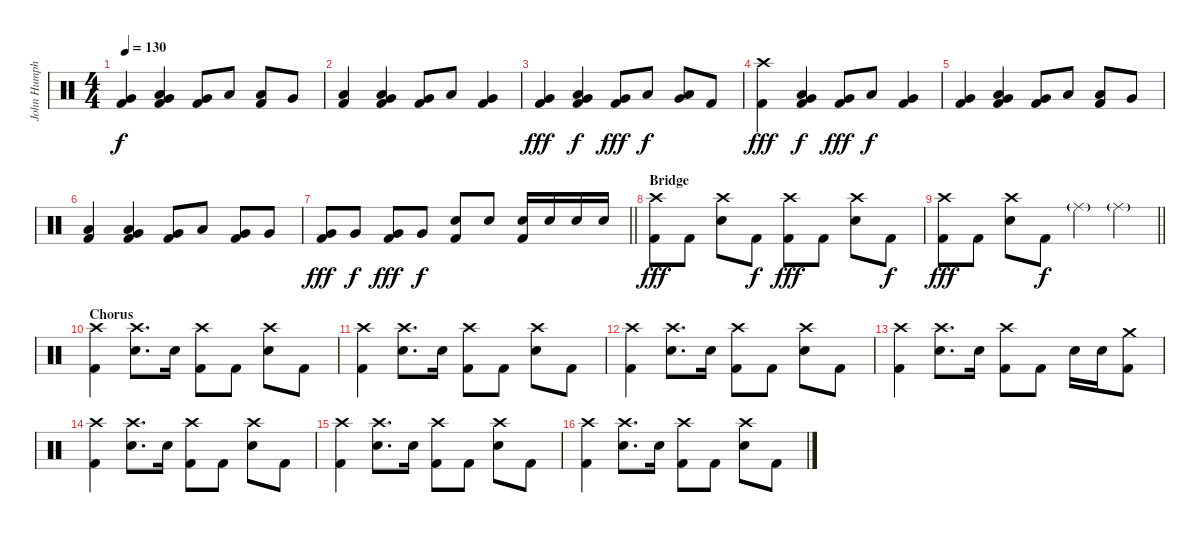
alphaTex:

\track ("John Humphrey" "John Humph") {instrument percussion}
\staff {score}
\articulation defaults
\ts (4 4)
\tempo 130
\clef neutral
\ks c
("Very Low Tom (hit)" "Kick (hit) 2").4{dy f} ("Low Tom (hit)" "Very Low Tom (hit)" "Kick (hit) 2").4 ("Very Low Tom (hit)" "Kick (hit) 2").8 "Low Tom (hit)".8 ("Low Floor Tom (hit)" "Kick (hit) 2").8 "Very Low Tom (hit)".8 |
("Low Floor Tom (hit)" "Kick (hit) 2").4 ("Low Tom (hit)" "Very Low Tom (hit)" "Kick (hit) 2").4 ("Very Low Tom (hit)" "Kick (hit) 2").8 "Low Tom (hit)".8 ("Very Low Tom (hit)" "Kick (hit) 2").4 |
("Very Low Tom (hit)" "Kick (hit) 2").4{dy fff} ("Low Tom (hit)" "Very Low Tom (hit)" "Kick (hit) 2").4{dy f} ("Very Low Tom (hit)" "Kick (hit) 2").8{dy fff} "Low Tom (hit)".8{dy f} ("Low Tom (hit)" "Very Low Tom (hit)").8{bd 120} "Kick (hit) 2".8 |
("Crash high (hit)" "Kick (hit) 2").4{dy fff} ("Low Tom (hit)" "Very Low Tom (hit)" "Kick (hit) 2").4{dy f} ("Very Low Tom (hit)" "Kick (hit) 2").8{dy fff} "Low Tom (hit)".8{dy f} ("Very Low Tom (hit)" "Kick (hit) 2").4 |
("Very Low Tom (hit)" "Kick (hit) 2").4 ("Low Tom (hit)" "Very Low Tom (hit)" "Kick (hit) 2").4 ("Very Low Tom (hit)" "Kick (hit) 2").8 "Low Tom (hit)".8 ("Low Floor Tom (hit)" "Kick (hit) 2").8 "Very Low Tom (hit)".8 |
("Low Floor Tom (hit)" "Kick (hit) 2").4 ("Low Tom (hit)" "Very Low Tom (hit)" "Kick (hit) 2").4 ("Very Low Tom (hit)" "Kick (hit) 2").8 "Low Tom (hit)".8 ("Very Low Tom (hit)" "Kick (hit) 2").8 "Very Low Tom (hit)".8 |
\barLineRight lightlight
("Very Low Tom (hit)" "Kick (hit) 2").8{dy fff} "Very Low Tom (hit)".8{dy f} ("Very Low Tom (hit)" "Kick (hit) 2").8{dy fff} "Very Low Tom (hit)".8{dy f} ("Electric Snare (hit)" "Kick (hit) 2").8 "Electric Snare (hit)".8 ("Electric Snare (hit)" "Kick (hit) 2").16 "Electric Snare (hit)".16 "Electric Snare (hit)".16 "Electric Snare (hit)".16 |
\section ("" "Bridge")
("Crash high (hit)" "Kick (hit) 2").8{dy fff} "Kick (hit) 2".8 ("Crash high (hit)" "Electric Snare (hit)").8 "Kick (hit) 2".8{dy f} ("Crash high (hit)" "Kick (hit) 2").8{dy fff} "Kick (hit) 2".8 ("Crash high (hit)" "Electric Snare (hit)").8 "Kick (hit) 2".8{dy f} |
\barLineRight lightlight
("Crash high (hit)" "Kick (hit) 2").8{dy fff} "Kick (hit) 2".8 ("Crash high (hit)" "Electric Snare (hit)").8 "Kick (hit) 2".8{dy f} "Ride (middle)"{g}.4 "Ride (middle)"{g}.4 |
\section ("" "Chorus")
("Crash high (hit)" "Kick (hit) 2").4 ("Crash high (hit)" "Electric Snare (hit)").8{d} "Electric Snare (hit)".16 ("Crash high (hit)" "Kick (hit) 2").8 "Kick (hit) 2".8 ("Crash high (hit)" "Electric Snare (hit)").8 "Kick (hit) 2".8 |
("Crash high (hit)" "Kick (hit) 2").4 ("Crash high (hit)" "Electric Snare (hit)").8{d} "Electric Snare (hit)".16 ("Crash high (hit)" "Kick (hit) 2").8 "Kick (hit) 2".8 ("Crash high (hit)" "Electric Snare (hit)").8 "Kick (hit) 2".8 |
("Crash high (hit)" "Kick (hit) 2").4 ("Crash high (hit)" "Electric Snare (hit)").8{d} "Electric Snare (hit)".16 ("Crash high (hit)" "Kick (hit) 2").8 "Kick (hit) 2".8 ("Crash high (hit)" "Electric Snare (hit)").8 "Kick (hit) 2".8 |
("Crash high (hit)" "Kick (hit) 2").4 ("Crash high (hit)" "Electric Snare (hit)").8{d} "Electric Snare (hit)".16 ("Crash high (hit)" "Kick (hit) 2").8 "Kick (hit) 2".8 "Electric Snare (hit)".16 "Electric Snare (hit)".16 ("Crash medium (hit)" "Kick (hit) 2").8 |
("Crash high (hit)" "Kick (hit) 2").4 ("Crash high (hit)" "Electric Snare (hit)").8{d} "Electric Snare (hit)".16 ("Crash high (hit)" "Kick (hit) 2").8 "Kick (hit) 2".8 ("Crash high (hit)" "Electric Snare (hit)").8 "Kick (hit) 2".8 |
("Crash high (hit)" "Kick (hit) 2").4 ("Crash high (hit)" "Electric Snare (hit)").8{d} "Electric Snare (hit)".16 ("Crash high (hit)" "Kick (hit) 2").8 "Kick (hit) 2".8 ("Crash high (hit)" "Electric Snare (hit)").8 "Kick (hit) 2".8 |
("Crash high (hit)" "Kick (hit) 2").4 ("Crash high (hit)" "Electric Snare (hit)").8{d} "Electric Snare (hit)".16 ("Crash high (hit)" "Kick (hit) 2").8 "Kick (hit) 2".8 ("Crash high (hit)" "Electric Snare (hit)").8 "Kick (hit) 2".8
